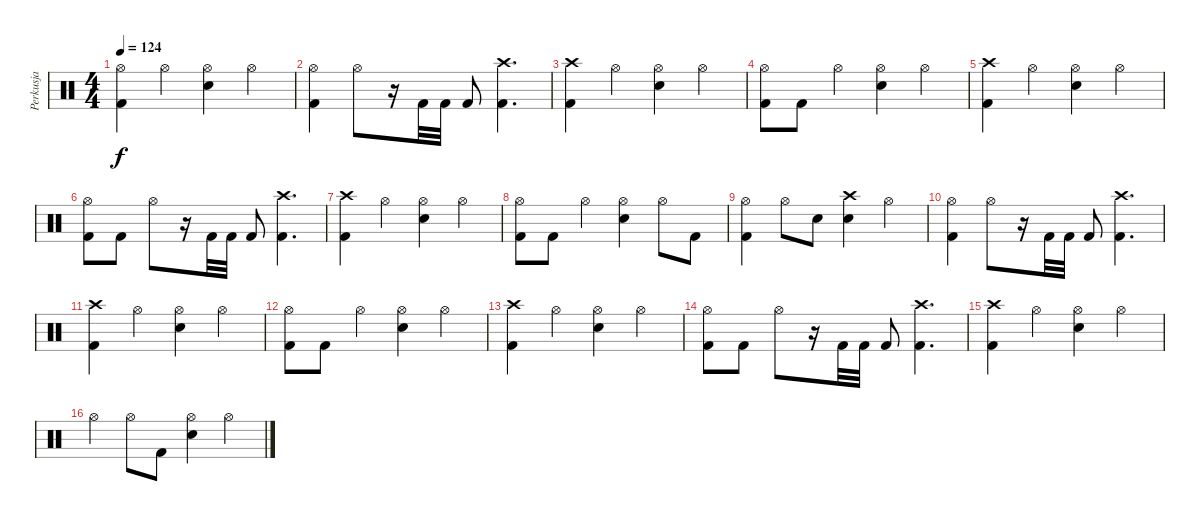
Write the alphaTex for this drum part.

\track ("Perkusja" "Perkusja") {instrument percussion}
\staff {score}
\articulation defaults
\ts (4 4)
\tempo 124
\clef neutral
\ks c
("Kick (hit) 2" "Hi-Hat (open)").4{dy f} "Hi-Hat (open)".4 ("Snare (hit) 2" "Hi-Hat (open)").4 "Hi-Hat (open)".4 |
("Kick (hit) 2" "Hi-Hat (open)").4 "Hi-Hat (open)".8 r.16 "Kick (hit) 2".32 "Kick (hit) 2".32 "Kick (hit) 2".8 ("Kick (hit) 2" "Crash high (hit)").4{d} |
("Kick (hit) 2" "Crash high (hit)").4 "Hi-Hat (open)".4 ("Snare (hit) 2" "Hi-Hat (open)").4 "Hi-Hat (open)".4 |
("Kick (hit) 2" "Hi-Hat (open)").8 "Kick (hit) 2".8 "Hi-Hat (open)".4 ("Snare (hit) 2" "Hi-Hat (open)").4 "Hi-Hat (open)".4 |
("Kick (hit) 2" "Crash high (hit)").4 "Hi-Hat (open)".4 ("Snare (hit) 2" "Hi-Hat (open)").4 "Hi-Hat (open)".4 |
("Kick (hit) 2" "Hi-Hat (open)").8 "Kick (hit) 2".8 "Hi-Hat (open)".8 r.16 "Kick (hit) 2".32 "Kick (hit) 2".32 "Kick (hit) 2".8 ("Kick (hit) 2" "Crash high (hit)").4{d} |
("Kick (hit) 2" "Crash high (hit)").4 "Hi-Hat (open)".4 ("Snare (hit) 2" "Hi-Hat (open)").4 "Hi-Hat (open)".4 |
("Kick (hit) 2" "Hi-Hat (open)").8 "Kick (hit) 2".8 "Hi-Hat (open)".4 ("Snare (hit) 2" "Hi-Hat (open)").4 "Hi-Hat (open)".8 "Kick (hit) 2".8 |
("Kick (hit) 2" "Hi-Hat (open)").4 "Hi-Hat (open)".8 "Snare (hit) 2".8 ("Snare (hit) 2" "Crash high (hit)").4 "Hi-Hat (open)".4 |
("Kick (hit) 2" "Hi-Hat (open)").4 "Hi-Hat (open)".8 r.16 "Kick (hit) 2".32 "Kick (hit) 2".32 "Kick (hit) 2".8 ("Kick (hit) 2" "Crash high (hit)").4{d} |
("Kick (hit) 2" "Crash high (hit)").4 "Hi-Hat (open)".4 ("Snare (hit) 2" "Hi-Hat (open)").4 "Hi-Hat (open)".4 |
("Kick (hit) 2" "Hi-Hat (open)").8 "Kick (hit) 2".8 "Hi-Hat (open)".4 ("Snare (hit) 2" "Hi-Hat (open)").4 "Hi-Hat (open)".4 |
("Kick (hit) 2" "Crash high (hit)").4 "Hi-Hat (open)".4 ("Snare (hit) 2" "Hi-Hat (open)").4 "Hi-Hat (open)".4 |
("Kick (hit) 2" "Hi-Hat (open)").8 "Kick (hit) 2".8 "Hi-Hat (open)".8 r.16 "Kick (hit) 2".32 "Kick (hit) 2".32 "Kick (hit) 2".8 ("Kick (hit) 2" "Crash high (hit)").4{d} |
("Kick (hit) 2" "Crash high (hit)").4 "Hi-Hat (open)".4 ("Snare (hit) 2" "Hi-Hat (open)").4 "Hi-Hat (open)".4 |
"Hi-Hat (open)".4 "Hi-Hat (open)".8 "Kick (hit) 2".8 ("Snare (hit) 2" "Hi-Hat (open)").4 "Hi-Hat (open)".4
